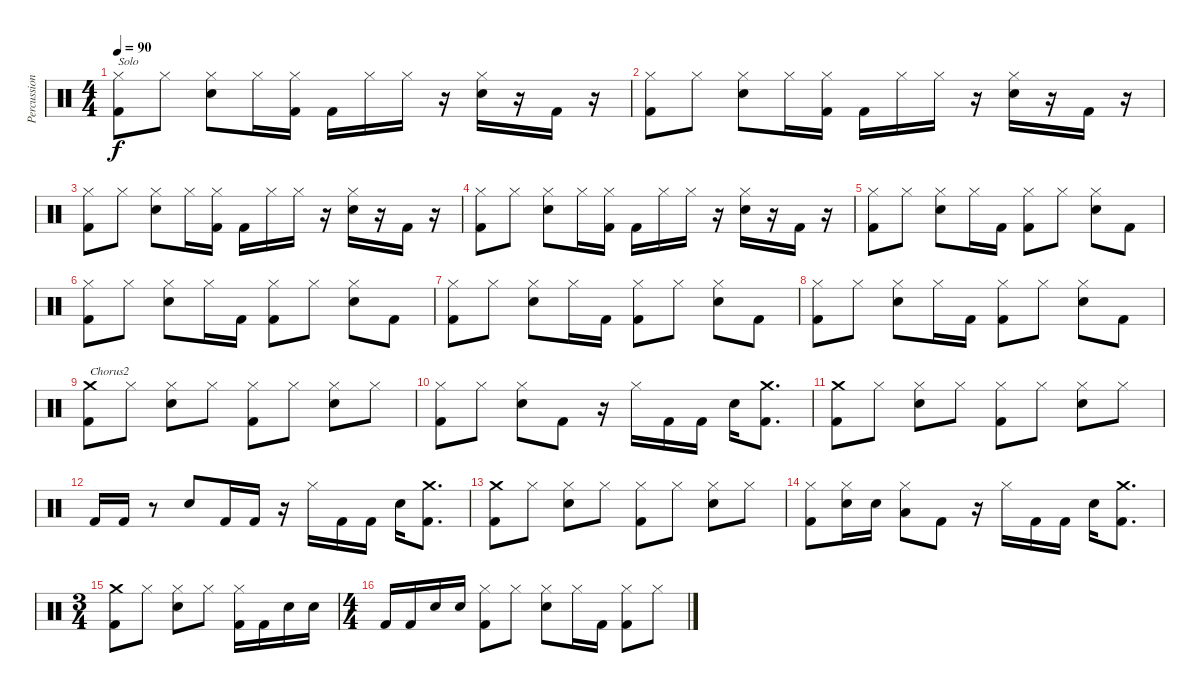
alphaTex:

\track ("Percussion" "Percussion") {instrument percussion}
\staff {score}
\articulation defaults
\ts (4 4)
\tempo 90
\clef neutral
\ks c
("Hi-Hat (closed)" "Kick (hit) 2").8{txt "Solo" dy f} "Hi-Hat (closed)".8 ("Hi-Hat (closed)" "Snare (hit) 2").8 "Hi-Hat (closed)".16 ("Hi-Hat (closed)" "Kick (hit) 2").16 "Kick (hit) 2".16 "Hi-Hat (closed)".16 "Hi-Hat (closed)".16 r.16 ("Hi-Hat (closed)" "Snare (hit) 2").16 r.16 "Kick (hit) 2".16 r.16 |
("Hi-Hat (closed)" "Kick (hit) 2").8 "Hi-Hat (closed)".8 ("Hi-Hat (closed)" "Snare (hit) 2").8 "Hi-Hat (closed)".16 ("Hi-Hat (closed)" "Kick (hit) 2").16 "Kick (hit) 2".16 "Hi-Hat (closed)".16 "Hi-Hat (closed)".16 r.16 ("Hi-Hat (closed)" "Snare (hit) 2").16 r.16 "Kick (hit) 2".16 r.16 |
("Hi-Hat (closed)" "Kick (hit) 2").8 "Hi-Hat (closed)".8 ("Hi-Hat (closed)" "Snare (hit) 2").8 "Hi-Hat (closed)".16 ("Hi-Hat (closed)" "Kick (hit) 2").16 "Kick (hit) 2".16 "Hi-Hat (closed)".16 "Hi-Hat (closed)".16 r.16 ("Hi-Hat (closed)" "Snare (hit) 2").16 r.16 "Kick (hit) 2".16 r.16 |
("Hi-Hat (closed)" "Kick (hit) 2").8 "Hi-Hat (closed)".8 ("Hi-Hat (closed)" "Snare (hit) 2").8 "Hi-Hat (closed)".16 ("Hi-Hat (closed)" "Kick (hit) 2").16 "Kick (hit) 2".16 "Hi-Hat (closed)".16 "Hi-Hat (closed)".16 r.16 ("Hi-Hat (closed)" "Snare (hit) 2").16 r.16 "Kick (hit) 2".16 r.16 |
("Hi-Hat (closed)" "Kick (hit) 2").8 "Hi-Hat (closed)".8 ("Hi-Hat (closed)" "Snare (hit) 2").8 "Hi-Hat (closed)".16 "Kick (hit) 2".16 ("Hi-Hat (closed)" "Kick (hit) 2").8 "Hi-Hat (closed)".8 ("Hi-Hat (closed)" "Snare (hit) 2").8 "Kick (hit) 2".8 |
("Hi-Hat (closed)" "Kick (hit) 2").8 "Hi-Hat (closed)".8 ("Hi-Hat (closed)" "Snare (hit) 2").8 "Hi-Hat (closed)".16 "Kick (hit) 2".16 ("Hi-Hat (closed)" "Kick (hit) 2").8 "Hi-Hat (closed)".8 ("Hi-Hat (closed)" "Snare (hit) 2").8 "Kick (hit) 2".8 |
("Hi-Hat (closed)" "Kick (hit) 2").8 "Hi-Hat (closed)".8 ("Hi-Hat (closed)" "Snare (hit) 2").8 "Hi-Hat (closed)".16 "Kick (hit) 2".16 ("Hi-Hat (closed)" "Kick (hit) 2").8 "Hi-Hat (closed)".8 ("Hi-Hat (closed)" "Snare (hit) 2").8 "Kick (hit) 2".8 |
("Hi-Hat (closed)" "Kick (hit) 2").8 "Hi-Hat (closed)".8 ("Hi-Hat (closed)" "Snare (hit) 2").8 "Hi-Hat (closed)".16 "Kick (hit) 2".16 ("Hi-Hat (closed)" "Kick (hit) 2").8 "Hi-Hat (closed)".8 ("Hi-Hat (closed)" "Snare (hit) 2").8 "Kick (hit) 2".8 |
("Crash medium (hit)" "Kick (hit) 2").8{txt "Chorus2"} "Hi-Hat (closed)".8 ("Hi-Hat (closed)" "Snare (hit) 2").8 "Hi-Hat (closed)".8 ("Hi-Hat (closed)" "Kick (hit) 2").8 "Hi-Hat (closed)".8 ("Hi-Hat (closed)" "Snare (hit) 2").8 "Hi-Hat (closed)".8 |
("Hi-Hat (closed)" "Kick (hit) 2").8 "Hi-Hat (closed)".8 ("Hi-Hat (closed)" "Snare (hit) 2").8 "Kick (hit) 2".8 r.16 "Hi-Hat (closed)".16 "Kick (hit) 2".16 "Kick (hit) 2".16 "Snare (hit) 2".16 ("Crash medium (hit)" "Kick (hit) 2").8{d} |
("Crash medium (hit)" "Kick (hit) 2").8 "Hi-Hat (closed)".8 ("Hi-Hat (closed)" "Snare (hit) 2").8 "Hi-Hat (closed)".8 ("Hi-Hat (closed)" "Kick (hit) 2").8 "Hi-Hat (closed)".8 ("Hi-Hat (closed)" "Snare (hit) 2").8 "Hi-Hat (closed)".8 |
"Kick (hit) 2".16 "Kick (hit) 2".16 r.8 "Snare (hit) 2".8 "Kick (hit) 2".16 "Kick (hit) 2".16 r.16 "Hi-Hat (closed)".16 "Kick (hit) 2".16 "Kick (hit) 2".16 "Snare (hit) 2".16 ("Crash medium (hit)" "Kick (hit) 2").8{d} |
("Crash medium (hit)" "Kick (hit) 2").8 "Hi-Hat (closed)".8 ("Hi-Hat (closed)" "Snare (hit) 2").8 "Hi-Hat (closed)".8 ("Hi-Hat (closed)" "Kick (hit) 2").8 "Hi-Hat (closed)".8 ("Hi-Hat (closed)" "Snare (hit) 2").8 "Hi-Hat (closed)".8 |
("Hi-Hat (closed)" "Kick (hit) 2").8 ("Hi-Hat (closed)" "Snare (hit) 2").16 "Snare (hit) 2".16 ("Hi-Hat (closed)" "Low Floor Tom (hit)").8 "Kick (hit) 2".8 r.16 "Hi-Hat (closed)".16 "Kick (hit) 2".16 "Kick (hit) 2".16 "Snare (hit) 2".16 ("Crash medium (hit)" "Kick (hit) 2").8{d} |
\ts (3 4)
("Crash medium (hit)" "Kick (hit) 2").8 "Hi-Hat (closed)".8 ("Hi-Hat (closed)" "Snare (hit) 2").8 "Hi-Hat (closed)".8 ("Hi-Hat (closed)" "Kick (hit) 2").16 "Kick (hit) 2".16 "Snare (hit) 2".16 "Snare (hit) 2".16 |
\ts (4 4)
"Kick (hit) 2".16 "Kick (hit) 2".16 "Snare (hit) 2".16 "Snare (hit) 2".16 ("Hi-Hat (closed)" "Kick (hit) 2").8 "Hi-Hat (closed)".8 ("Hi-Hat (closed)" "Snare (hit) 2").8 "Hi-Hat (closed)".16 "Kick (hit) 2".16 ("Hi-Hat (closed)" "Kick (hit) 2").8 "Hi-Hat (closed)".8
